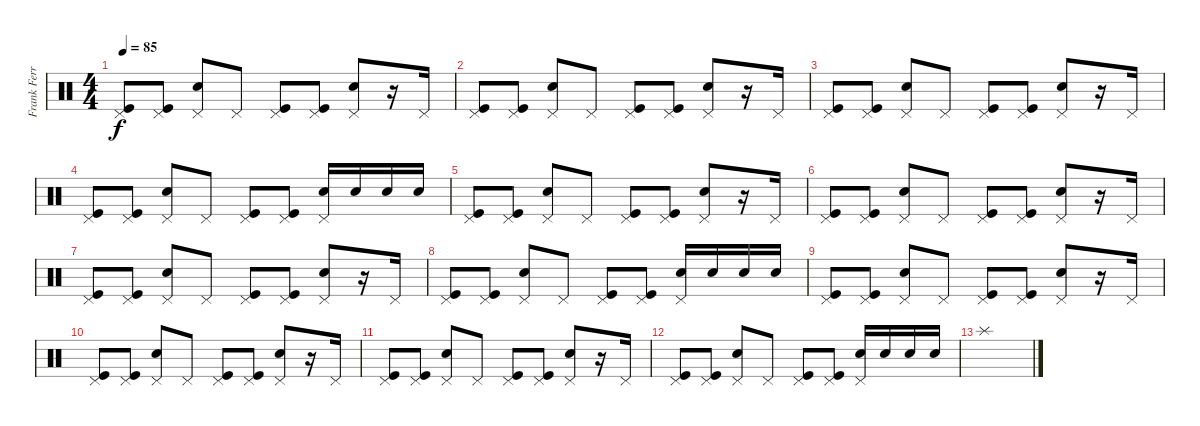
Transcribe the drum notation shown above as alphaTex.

\track ("Frank Ferrer" "Frank Ferr") {instrument percussion}
\staff {score}
\articulation defaults
\ts (4 4)
\tempo 85
\clef neutral
\ks c
("Kick (hit)" "Pedal Hi-Hat (hit)").8{dy f} ("Kick (hit)" "Pedal Hi-Hat (hit)").8 ("Snare (hit) 2" "Pedal Hi-Hat (hit)").8 "Pedal Hi-Hat (hit)".8 ("Kick (hit)" "Pedal Hi-Hat (hit)").8 ("Kick (hit)" "Pedal Hi-Hat (hit)").8 ("Snare (hit) 2" "Pedal Hi-Hat (hit)").8 r.16 "Pedal Hi-Hat (hit)".16 |
("Kick (hit)" "Pedal Hi-Hat (hit)").8 ("Kick (hit)" "Pedal Hi-Hat (hit)").8 ("Snare (hit) 2" "Pedal Hi-Hat (hit)").8 "Pedal Hi-Hat (hit)".8 ("Kick (hit)" "Pedal Hi-Hat (hit)").8 ("Kick (hit)" "Pedal Hi-Hat (hit)").8 ("Snare (hit) 2" "Pedal Hi-Hat (hit)").8 r.16 "Pedal Hi-Hat (hit)".16 |
("Kick (hit)" "Pedal Hi-Hat (hit)").8 ("Kick (hit)" "Pedal Hi-Hat (hit)").8 ("Snare (hit) 2" "Pedal Hi-Hat (hit)").8 "Pedal Hi-Hat (hit)".8 ("Kick (hit)" "Pedal Hi-Hat (hit)").8 ("Kick (hit)" "Pedal Hi-Hat (hit)").8 ("Snare (hit) 2" "Pedal Hi-Hat (hit)").8 r.16 "Pedal Hi-Hat (hit)".16 |
("Kick (hit)" "Pedal Hi-Hat (hit)").8 ("Kick (hit)" "Pedal Hi-Hat (hit)").8 ("Snare (hit) 2" "Pedal Hi-Hat (hit)").8 "Pedal Hi-Hat (hit)".8 ("Kick (hit)" "Pedal Hi-Hat (hit)").8 ("Kick (hit)" "Pedal Hi-Hat (hit)").8 ("Snare (hit) 2" "Pedal Hi-Hat (hit)").16 "Snare (hit) 2".16 "Snare (hit) 2".16 "Snare (hit) 2".16 |
("Kick (hit)" "Pedal Hi-Hat (hit)").8 ("Kick (hit)" "Pedal Hi-Hat (hit)").8 ("Snare (hit) 2" "Pedal Hi-Hat (hit)").8 "Pedal Hi-Hat (hit)".8 ("Kick (hit)" "Pedal Hi-Hat (hit)").8 ("Kick (hit)" "Pedal Hi-Hat (hit)").8 ("Snare (hit) 2" "Pedal Hi-Hat (hit)").8 r.16 "Pedal Hi-Hat (hit)".16 |
("Kick (hit)" "Pedal Hi-Hat (hit)").8 ("Kick (hit)" "Pedal Hi-Hat (hit)").8 ("Snare (hit) 2" "Pedal Hi-Hat (hit)").8 "Pedal Hi-Hat (hit)".8 ("Kick (hit)" "Pedal Hi-Hat (hit)").8 ("Kick (hit)" "Pedal Hi-Hat (hit)").8 ("Snare (hit) 2" "Pedal Hi-Hat (hit)").8 r.16 "Pedal Hi-Hat (hit)".16 |
("Kick (hit)" "Pedal Hi-Hat (hit)").8 ("Kick (hit)" "Pedal Hi-Hat (hit)").8 ("Snare (hit) 2" "Pedal Hi-Hat (hit)").8 "Pedal Hi-Hat (hit)".8 ("Kick (hit)" "Pedal Hi-Hat (hit)").8 ("Kick (hit)" "Pedal Hi-Hat (hit)").8 ("Snare (hit) 2" "Pedal Hi-Hat (hit)").8 r.16 "Pedal Hi-Hat (hit)".16 |
("Kick (hit)" "Pedal Hi-Hat (hit)").8 ("Kick (hit)" "Pedal Hi-Hat (hit)").8 ("Snare (hit) 2" "Pedal Hi-Hat (hit)").8 "Pedal Hi-Hat (hit)".8 ("Kick (hit)" "Pedal Hi-Hat (hit)").8 ("Kick (hit)" "Pedal Hi-Hat (hit)").8 ("Snare (hit) 2" "Pedal Hi-Hat (hit)").16 "Snare (hit) 2".16 "Snare (hit) 2".16 "Snare (hit) 2".16 |
("Kick (hit)" "Pedal Hi-Hat (hit)").8 ("Kick (hit)" "Pedal Hi-Hat (hit)").8 ("Snare (hit) 2" "Pedal Hi-Hat (hit)").8 "Pedal Hi-Hat (hit)".8 ("Kick (hit)" "Pedal Hi-Hat (hit)").8 ("Kick (hit)" "Pedal Hi-Hat (hit)").8 ("Snare (hit) 2" "Pedal Hi-Hat (hit)").8 r.16 "Pedal Hi-Hat (hit)".16 |
("Kick (hit)" "Pedal Hi-Hat (hit)").8 ("Kick (hit)" "Pedal Hi-Hat (hit)").8 ("Snare (hit) 2" "Pedal Hi-Hat (hit)").8 "Pedal Hi-Hat (hit)".8 ("Kick (hit)" "Pedal Hi-Hat (hit)").8 ("Kick (hit)" "Pedal Hi-Hat (hit)").8 ("Snare (hit) 2" "Pedal Hi-Hat (hit)").8 r.16 "Pedal Hi-Hat (hit)".16 |
("Kick (hit)" "Pedal Hi-Hat (hit)").8 ("Kick (hit)" "Pedal Hi-Hat (hit)").8 ("Snare (hit) 2" "Pedal Hi-Hat (hit)").8 "Pedal Hi-Hat (hit)".8 ("Kick (hit)" "Pedal Hi-Hat (hit)").8 ("Kick (hit)" "Pedal Hi-Hat (hit)").8 ("Snare (hit) 2" "Pedal Hi-Hat (hit)").8 r.16 "Pedal Hi-Hat (hit)".16 |
("Kick (hit)" "Pedal Hi-Hat (hit)").8 ("Kick (hit)" "Pedal Hi-Hat (hit)").8 ("Snare (hit) 2" "Pedal Hi-Hat (hit)").8 "Pedal Hi-Hat (hit)".8 ("Kick (hit)" "Pedal Hi-Hat (hit)").8 ("Kick (hit)" "Pedal Hi-Hat (hit)").8 ("Snare (hit) 2" "Pedal Hi-Hat (hit)").16 "Snare (hit) 2".16 "Snare (hit) 2".16 "Snare (hit) 2".16 |
"Splash (hit)".1
